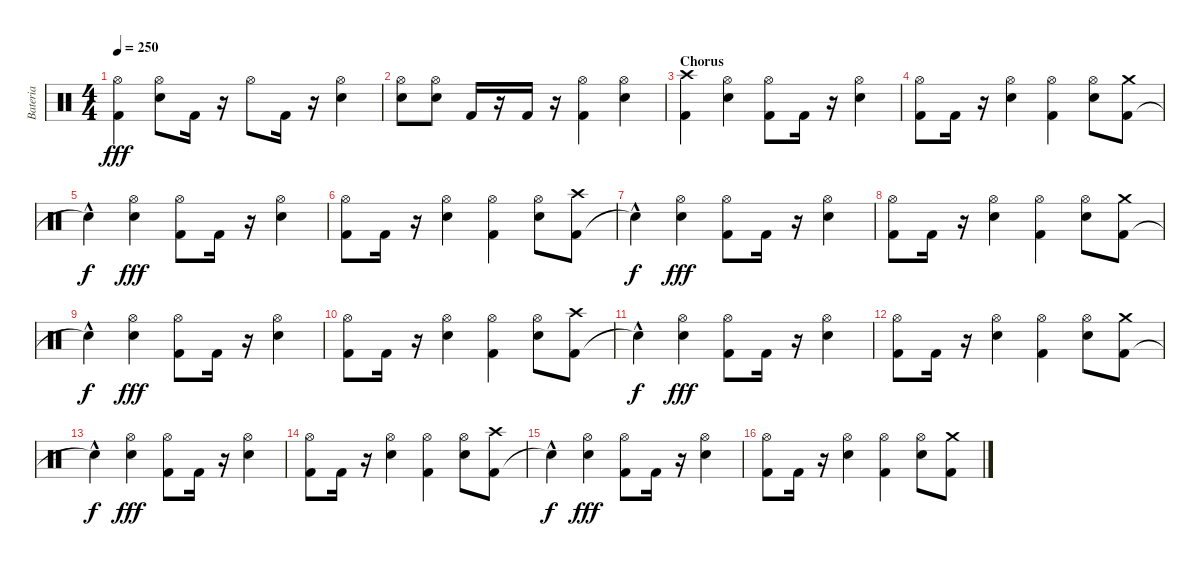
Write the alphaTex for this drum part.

\track ("Bateria" "Bateria") {instrument percussion}
\staff {score}
\articulation defaults
\ts (4 4)
\tempo 250
\clef neutral
\ks c
("Kick (hit) 2" "Hi-Hat (open)").4{dy fff} ("Electric Snare (hit)" "Hi-Hat (open)").8 "Kick (hit) 2".16 r.16 "Hi-Hat (open)".8 "Kick (hit) 2".16 r.16 ("Electric Snare (hit)" "Hi-Hat (open)").4 |
("Hi-Hat (open)" "Electric Snare (hit)").8 ("Electric Snare (hit)" "Hi-Hat (open)").8 "Kick (hit) 2".16 r.16 "Kick (hit) 2".16 r.16 ("Hi-Hat (open)" "Kick (hit) 2").4 ("Electric Snare (hit)" "Hi-Hat (open)").4 |
\section ("" "Chorus")
("Kick (hit) 2" "Crash high (hit)").4 ("Electric Snare (hit)" "Hi-Hat (open)").4 ("Kick (hit) 2" "Hi-Hat (open)").8 "Kick (hit) 2".16 r.16 ("Electric Snare (hit)" "Hi-Hat (open)").4 |
("Kick (hit) 2" "Hi-Hat (open)").8 "Kick (hit) 2".16 r.16 ("Electric Snare (hit)" "Hi-Hat (open)").4 ("Kick (hit) 2" "Hi-Hat (open)").4 ("Electric Snare (hit)" "Hi-Hat (open)").8 ("Kick (hit) 2" "Crash medium (hit)").8 |
"Snare (hit)"{hac t}.4{dy f} ("Electric Snare (hit)" "Hi-Hat (open)").4{dy fff} ("Kick (hit) 2" "Hi-Hat (open)").8 "Kick (hit) 2".16 r.16 ("Electric Snare (hit)" "Hi-Hat (open)").4 |
("Kick (hit) 2" "Hi-Hat (open)").8 "Kick (hit) 2".16 r.16 ("Electric Snare (hit)" "Hi-Hat (open)").4 ("Kick (hit) 2" "Hi-Hat (open)").4 ("Electric Snare (hit)" "Hi-Hat (open)").8 ("Kick (hit) 2" "Crash high (hit)").8 |
"Snare (hit)"{hac t}.4{dy f} ("Electric Snare (hit)" "Hi-Hat (open)").4{dy fff} ("Kick (hit) 2" "Hi-Hat (open)").8 "Kick (hit) 2".16 r.16 ("Electric Snare (hit)" "Hi-Hat (open)").4 |
("Kick (hit) 2" "Hi-Hat (open)").8 "Kick (hit) 2".16 r.16 ("Electric Snare (hit)" "Hi-Hat (open)").4 ("Kick (hit) 2" "Hi-Hat (open)").4 ("Electric Snare (hit)" "Hi-Hat (open)").8 ("Kick (hit) 2" "Crash medium (hit)").8 |
"Snare (hit)"{hac t}.4{dy f} ("Electric Snare (hit)" "Hi-Hat (open)").4{dy fff} ("Kick (hit) 2" "Hi-Hat (open)").8 "Kick (hit) 2".16 r.16 ("Electric Snare (hit)" "Hi-Hat (open)").4 |
("Kick (hit) 2" "Hi-Hat (open)").8 "Kick (hit) 2".16 r.16 ("Electric Snare (hit)" "Hi-Hat (open)").4 ("Kick (hit) 2" "Hi-Hat (open)").4 ("Electric Snare (hit)" "Hi-Hat (open)").8 ("Kick (hit) 2" "Crash high (hit)").8 |
"Snare (hit)"{hac t}.4{dy f} ("Electric Snare (hit)" "Hi-Hat (open)").4{dy fff} ("Kick (hit) 2" "Hi-Hat (open)").8 "Kick (hit) 2".16 r.16 ("Electric Snare (hit)" "Hi-Hat (open)").4 |
("Kick (hit) 2" "Hi-Hat (open)").8 "Kick (hit) 2".16 r.16 ("Electric Snare (hit)" "Hi-Hat (open)").4 ("Kick (hit) 2" "Hi-Hat (open)").4 ("Electric Snare (hit)" "Hi-Hat (open)").8 ("Kick (hit) 2" "Crash medium (hit)").8 |
"Snare (hit)"{hac t}.4{dy f} ("Electric Snare (hit)" "Hi-Hat (open)").4{dy fff} ("Kick (hit) 2" "Hi-Hat (open)").8 "Kick (hit) 2".16 r.16 ("Electric Snare (hit)" "Hi-Hat (open)").4 |
("Kick (hit) 2" "Hi-Hat (open)").8 "Kick (hit) 2".16 r.16 ("Electric Snare (hit)" "Hi-Hat (open)").4 ("Kick (hit) 2" "Hi-Hat (open)").4 ("Electric Snare (hit)" "Hi-Hat (open)").8 ("Kick (hit) 2" "Crash high (hit)").8 |
"Snare (hit)"{hac t}.4{dy f} ("Electric Snare (hit)" "Hi-Hat (open)").4{dy fff} ("Kick (hit) 2" "Hi-Hat (open)").8 "Kick (hit) 2".16 r.16 ("Electric Snare (hit)" "Hi-Hat (open)").4 |
("Kick (hit) 2" "Hi-Hat (open)").8 "Kick (hit) 2".16 r.16 ("Electric Snare (hit)" "Hi-Hat (open)").4 ("Kick (hit) 2" "Hi-Hat (open)").4 ("Electric Snare (hit)" "Hi-Hat (open)").8 ("Kick (hit) 2" "Crash medium (hit)").8
